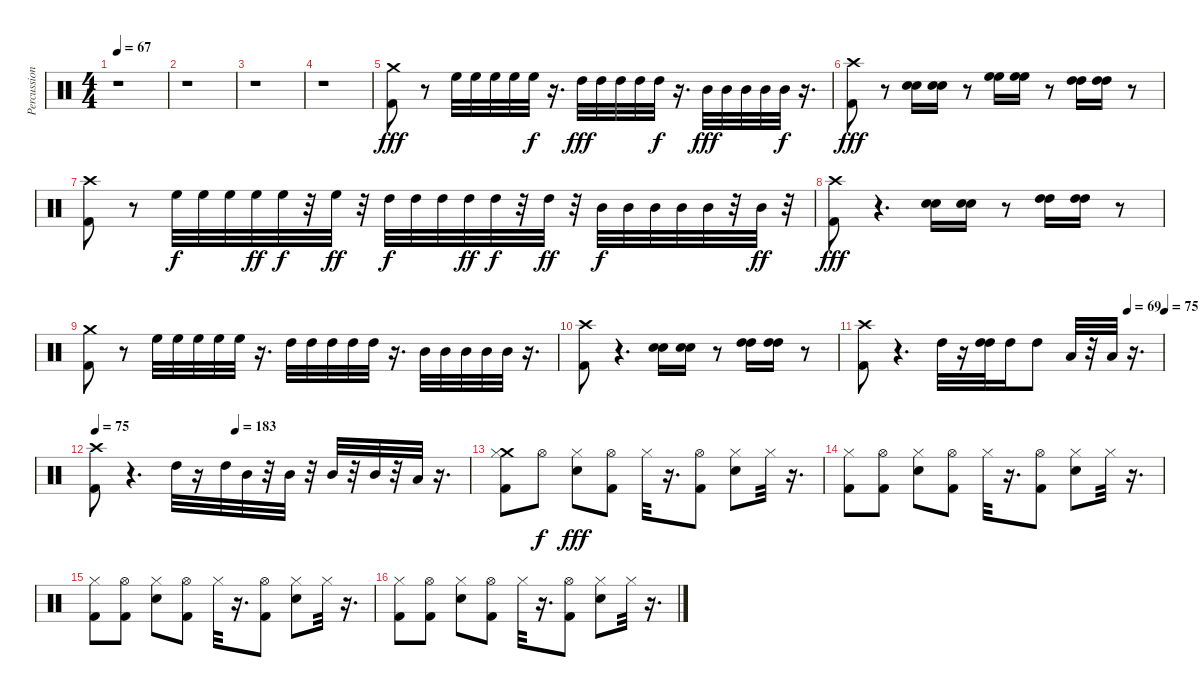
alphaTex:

\track ("Percussioni" "Percussion") {instrument percussion}
\staff {score}
\articulation defaults
\ts (4 4)
\tempo 67
\clef neutral
\ks c
r.1{dy fff} |
r.1 |
r.1 |
r.1 |
("Crash medium (hit)" "Kick (hit) 2").8 r.8 "High Floor Tom (hit)".32 "High Floor Tom (hit)".32 "High Floor Tom (hit)".32 "High Floor Tom (hit)".32 "High Floor Tom (hit)".32{dy f} r.16{d} "High Tom (hit)".32{dy fff} "High Tom (hit)".32 "High Tom (hit)".32 "High Tom (hit)".32 "High Tom (hit)".32{dy f} r.16{d} "Mid Tom (hit)".32{dy fff} "Mid Tom (hit)".32 "Mid Tom (hit)".32 "Mid Tom (hit)".32 "Mid Tom (hit)".32{dy f} r.16{d} |
("Crash high (hit)" "Kick (hit) 2").8{dy fff} r.8 ("Snare (hit) 2" "Snare (hit) 2").16 ("Snare (hit) 2" "Snare (hit) 2").16 r.8 ("High Floor Tom (hit)" "High Floor Tom (hit)").16 ("High Floor Tom (hit)" "High Floor Tom (hit)").16 r.8 ("High Tom (hit)" "High Tom (hit)").16 ("High Tom (hit)" "High Tom (hit)").16 r.8 |
("Crash high (hit)" "Kick (hit) 2").8 r.8 "High Floor Tom (hit)".32{dy f} "High Floor Tom (hit)".32 "High Floor Tom (hit)".32 "High Floor Tom (hit)".32{dy ff} "High Floor Tom (hit)".32{dy f} r.32 "High Floor Tom (hit)".32{dy ff} r.32 "High Tom (hit)".32{dy f} "High Tom (hit)".32 "High Tom (hit)".32 "High Tom (hit)".32{dy ff} "High Tom (hit)".32{dy f} r.32 "High Tom (hit)".32{dy ff} r.32 "Mid Tom (hit)".32{dy f} "Mid Tom (hit)".32 "Mid Tom (hit)".32 "Mid Tom (hit)".32 "Mid Tom (hit)".32 r.32 "Mid Tom (hit)".32{dy ff} r.32 |
("Crash high (hit)" "Kick (hit) 2").8{dy fff} r.4{d} ("Snare (hit) 2" "Snare (hit) 2").16 ("Snare (hit) 2" "Snare (hit) 2").16 r.8 ("High Tom (hit)" "High Tom (hit)").16 ("High Tom (hit)" "High Tom (hit)").16 r.8 |
("Crash medium (hit)" "Kick (hit) 2").8 r.8 "High Floor Tom (hit)".32 "High Floor Tom (hit)".32 "High Floor Tom (hit)".32 "High Floor Tom (hit)".32 "High Floor Tom (hit)".32 r.16{d} "High Tom (hit)".32 "High Tom (hit)".32 "High Tom (hit)".32 "High Tom (hit)".32 "High Tom (hit)".32 r.16{d} "Mid Tom (hit)".32 "Mid Tom (hit)".32 "Mid Tom (hit)".32 "Mid Tom (hit)".32 "Mid Tom (hit)".32 r.16{d} |
("Crash high (hit)" "Kick (hit) 2").8 r.4{d} ("Snare (hit) 2" "Snare (hit) 2").16 ("Snare (hit) 2" "Snare (hit) 2").16 r.8 ("High Tom (hit)" "High Tom (hit)").16 ("High Tom (hit)" "High Tom (hit)").16 r.8 |
\tempo (69 0.8828125)
\tempo (75 1.0078125)
("Crash high (hit)" "Kick (hit) 2").8 r.4{d} "High Tom (hit)".32 r.16 ("High Tom (hit)" "High Tom (hit)").32 "High Tom (hit)".16 "High Tom (hit)".8 "Low Tom (hit)".32 r.32 "Low Tom (hit)".32 r.16{d} |
\tempo 75
\tempo (183 0.375)
("Crash high (hit)" "Kick (hit) 2").8 r.4{d} "High Tom (hit)".32 r.16 "High Tom (hit)".32 "Mid Tom (hit)".32 r.32 "Mid Tom (hit)".32 r.32 "Mid Tom (hit)".32 r.32 "Mid Tom (hit)".32 r.32 "Low Tom (hit)".32 r.16{d} |
("Crash medium (hit)" "Hi-Hat (closed)" "Kick (hit) 2").8 "Hi-Hat (open)".8{dy f} ("Hi-Hat (closed)" "Snare (hit) 2").8{dy fff} ("Hi-Hat (open)" "Kick (hit) 2").8 "Hi-Hat (closed)".32 r.16{d} ("Hi-Hat (open)" "Kick (hit) 2").8 ("Hi-Hat (closed)" "Snare (hit) 2").8 "Hi-Hat (closed)".32 r.16{d} |
("Hi-Hat (closed)" "Kick (hit) 2").8 ("Hi-Hat (open)" "Kick (hit) 2").8 ("Hi-Hat (closed)" "Snare (hit) 2").8 ("Hi-Hat (open)" "Kick (hit) 2").8 "Hi-Hat (closed)".32 r.16{d} ("Hi-Hat (open)" "Kick (hit) 2").8 ("Hi-Hat (closed)" "Snare (hit) 2").8 "Hi-Hat (closed)".32 r.16{d} |
("Hi-Hat (closed)" "Kick (hit) 2").8 ("Hi-Hat (open)" "Kick (hit) 2").8 ("Hi-Hat (closed)" "Snare (hit) 2").8 ("Hi-Hat (open)" "Kick (hit) 2").8 "Hi-Hat (closed)".32 r.16{d} ("Hi-Hat (open)" "Kick (hit) 2").8 ("Hi-Hat (closed)" "Snare (hit) 2").8 "Hi-Hat (closed)".32 r.16{d} |
("Hi-Hat (closed)" "Kick (hit) 2").8 ("Hi-Hat (open)" "Kick (hit) 2").8 ("Hi-Hat (closed)" "Snare (hit) 2").8 ("Hi-Hat (open)" "Kick (hit) 2").8 "Hi-Hat (closed)".32 r.16{d} ("Hi-Hat (open)" "Kick (hit) 2").8 ("Hi-Hat (closed)" "Snare (hit) 2").8 "Hi-Hat (closed)".32 r.16{d}
